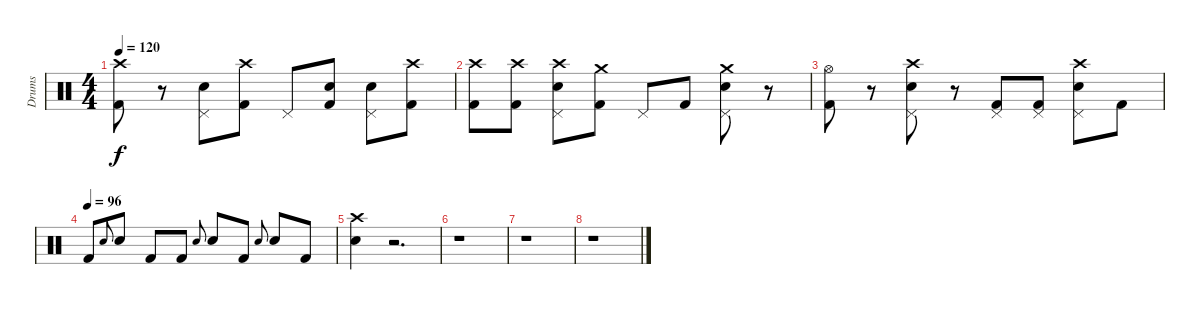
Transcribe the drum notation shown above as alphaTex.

\track ("Drums" "Drums") {instrument percussion}
\staff {score}
\articulation defaults
\ts (4 4)
\tempo 120
\clef neutral
\ks c
("Crash high (hit)" "Kick (hit) 2").8{dy f} r.8 ("Pedal Hi-Hat (hit)" "Electric Snare (hit)").8 ("Crash high (hit)" "Kick (hit) 2").8 "Pedal Hi-Hat (hit)".8 ("Electric Snare (hit)" "Kick (hit) 2").8 ("Pedal Hi-Hat (hit)" "Electric Snare (hit)").8 ("Crash high (hit)" "Kick (hit) 2").8 |
("Crash high (hit)" "Kick (hit) 2").8 ("Crash high (hit)" "Kick (hit) 2").8 ("Crash high (hit)" "Pedal Hi-Hat (hit)" "Electric Snare (hit)").8 ("Crash medium (hit)" "Kick (hit) 2").8 "Pedal Hi-Hat (hit)".8 "Kick (hit) 2".8 ("Crash medium (hit)" "Pedal Hi-Hat (hit)" "Electric Snare (hit)").8 r.8 |
("Hi-Hat (open)" "Kick (hit) 2").8 r.8 ("Crash high (hit)" "Pedal Hi-Hat (hit)" "Electric Snare (hit)").8 r.8 ("Pedal Hi-Hat (hit)" "Kick (hit) 2").8 ("Pedal Hi-Hat (hit)" "Kick (hit) 2").8 ("Crash high (hit)" "Pedal Hi-Hat (hit)" "Electric Snare (hit)").8 "Kick (hit) 2".8 |
\tempo (96)
"Kick (hit) 2".8 "Electric Snare (hit)".8{gr onbeat} "Electric Snare (hit)".8 "Kick (hit) 2".8 "Kick (hit) 2".8 "Electric Snare (hit)".8{gr onbeat} "Electric Snare (hit)".8 "Kick (hit) 2".8 "Electric Snare (hit)".8{gr onbeat} "Electric Snare (hit)".8 "Kick (hit) 2".8 |
("Crash high (hit)" "Electric Snare (hit)").4 r.2{d} |
r.1 |
r.1 |
r.1
